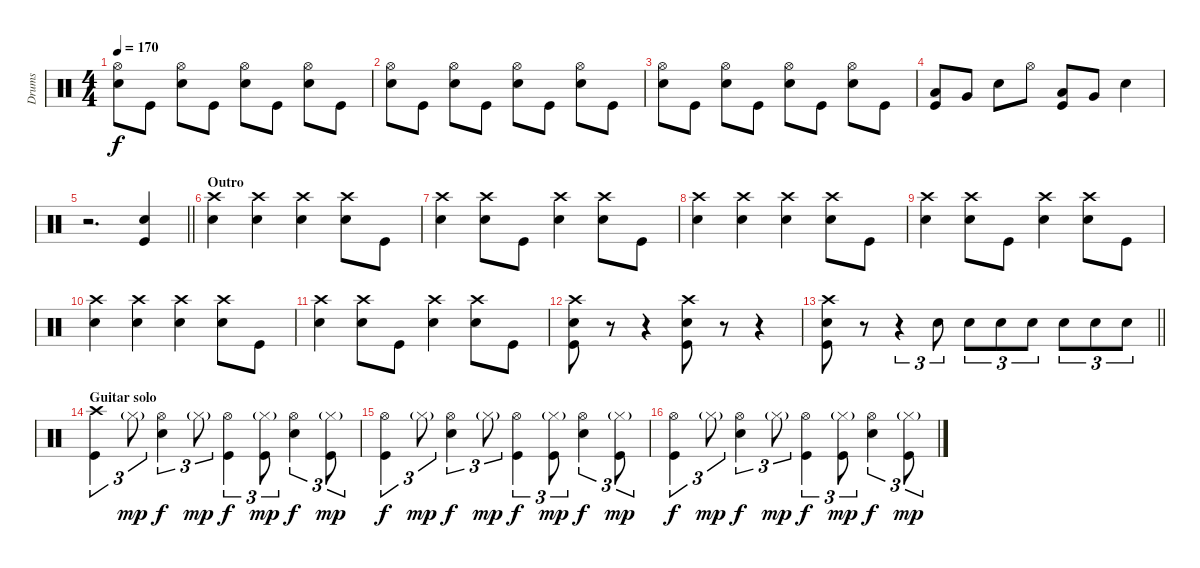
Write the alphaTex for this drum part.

\track ("Drums" "Drums") {instrument percussion}
\staff {score}
\articulation defaults
\ts (4 4)
\tempo 170
\clef neutral
\ks c
("Hi-Hat (open)" "Snare (hit) 2").8{dy f} "Kick (hit)".8 ("Hi-Hat (open)" "Snare (hit) 2").8 "Kick (hit)".8 ("Hi-Hat (open)" "Snare (hit) 2").8 "Kick (hit)".8 ("Hi-Hat (open)" "Snare (hit) 2").8 "Kick (hit)".8 |
("Hi-Hat (open)" "Snare (hit) 2").8 "Kick (hit)".8 ("Hi-Hat (open)" "Snare (hit) 2").8 "Kick (hit)".8 ("Hi-Hat (open)" "Snare (hit) 2").8 "Kick (hit)".8 ("Hi-Hat (open)" "Snare (hit) 2").8 "Kick (hit)".8 |
("Hi-Hat (open)" "Snare (hit) 2").8 "Kick (hit)".8 ("Hi-Hat (open)" "Snare (hit) 2").8 "Kick (hit)".8 ("Hi-Hat (open)" "Snare (hit) 2").8 "Kick (hit)".8 ("Hi-Hat (open)" "Snare (hit) 2").8 "Kick (hit)".8 |
("Low Tom (hit)" "Kick (hit)").8 "Very Low Tom (hit)".8 "Snare (hit) 2".8 "Hi-Hat (open)".8 ("Low Tom (hit)" "Kick (hit)").8 "Very Low Tom (hit)".8 "Snare (hit) 2".4 |
\barLineRight lightlight
r.2{d} ("Snare (hit) 2" "Kick (hit)").4 |
\section ("" "Outro")
("Crash high (hit)" "Snare (hit) 2").4 ("Crash high (hit)" "Snare (hit) 2").4 ("Crash high (hit)" "Snare (hit) 2").4 ("Crash high (hit)" "Snare (hit) 2").8 "Kick (hit)".8 |
("Crash high (hit)" "Snare (hit) 2").4 ("Crash high (hit)" "Snare (hit) 2").8 "Kick (hit)".8 ("Crash high (hit)" "Snare (hit) 2").4 ("Crash high (hit)" "Snare (hit) 2").8 "Kick (hit)".8 |
("Crash high (hit)" "Snare (hit) 2").4 ("Crash high (hit)" "Snare (hit) 2").4 ("Crash high (hit)" "Snare (hit) 2").4 ("Crash high (hit)" "Snare (hit) 2").8 "Kick (hit)".8 |
("Crash high (hit)" "Snare (hit) 2").4 ("Crash high (hit)" "Snare (hit) 2").8 "Kick (hit)".8 ("Crash high (hit)" "Snare (hit) 2").4 ("Crash high (hit)" "Snare (hit) 2").8 "Kick (hit)".8 |
("Crash high (hit)" "Snare (hit) 2").4 ("Crash high (hit)" "Snare (hit) 2").4 ("Crash high (hit)" "Snare (hit) 2").4 ("Crash high (hit)" "Snare (hit) 2").8 "Kick (hit)".8 |
("Crash high (hit)" "Snare (hit) 2").4 ("Crash high (hit)" "Snare (hit) 2").8 "Kick (hit)".8 ("Crash high (hit)" "Snare (hit) 2").4 ("Crash high (hit)" "Snare (hit) 2").8 "Kick (hit)".8 |
("Crash high (hit)" "Snare (hit) 2" "Kick (hit)").8 r.8 r.4 ("Crash high (hit)" "Snare (hit) 2" "Kick (hit)").8 r.8 r.4 |
\barLineRight lightlight
("Crash high (hit)" "Snare (hit) 2" "Kick (hit)").8 r.8 r.4{tu (3 2)} "Snare (hit) 2".8{tu (3 2)} "Snare (hit) 2".8{tu (3 2)} "Snare (hit) 2".8{tu (3 2)} "Snare (hit) 2".8{tu (3 2)} "Snare (hit) 2".8{tu (3 2)} "Snare (hit) 2".8{tu (3 2)} "Snare (hit) 2".8{tu (3 2)} |
\section ("" "Guitar solo")
("Crash high (hit)" "Kick (hit)").4{tu (3 2)} "Hi-Hat (closed)"{g}.8{tu (3 2) dy mp} ("Hi-Hat (open)" "Snare (hit) 2").4{tu (3 2) dy f} "Hi-Hat (closed)"{g}.8{tu (3 2) dy mp} ("Hi-Hat (open)" "Kick (hit)").4{tu (3 2) dy f} ("Hi-Hat (closed)"{g} "Kick (hit)").8{tu (3 2) dy mp} ("Hi-Hat (open)" "Snare (hit) 2").4{tu (3 2) dy f} ("Hi-Hat (closed)"{g} "Kick (hit)").8{tu (3 2) dy mp} |
("Hi-Hat (open)" "Kick (hit)").4{tu (3 2) dy f} "Hi-Hat (closed)"{g}.8{tu (3 2) dy mp} ("Hi-Hat (open)" "Snare (hit) 2").4{tu (3 2) dy f} "Hi-Hat (closed)"{g}.8{tu (3 2) dy mp} ("Hi-Hat (open)" "Kick (hit)").4{tu (3 2) dy f} ("Hi-Hat (closed)"{g} "Kick (hit)").8{tu (3 2) dy mp} ("Hi-Hat (open)" "Snare (hit) 2").4{tu (3 2) dy f} ("Hi-Hat (closed)"{g} "Kick (hit)").8{tu (3 2) dy mp} |
("Hi-Hat (open)" "Kick (hit)").4{tu (3 2) dy f} "Hi-Hat (closed)"{g}.8{tu (3 2) dy mp} ("Hi-Hat (open)" "Snare (hit) 2").4{tu (3 2) dy f} "Hi-Hat (closed)"{g}.8{tu (3 2) dy mp} ("Hi-Hat (open)" "Kick (hit)").4{tu (3 2) dy f} ("Hi-Hat (closed)"{g} "Kick (hit)").8{tu (3 2) dy mp} ("Hi-Hat (open)" "Snare (hit) 2").4{tu (3 2) dy f} ("Hi-Hat (closed)"{g} "Kick (hit)").8{tu (3 2) dy mp}
